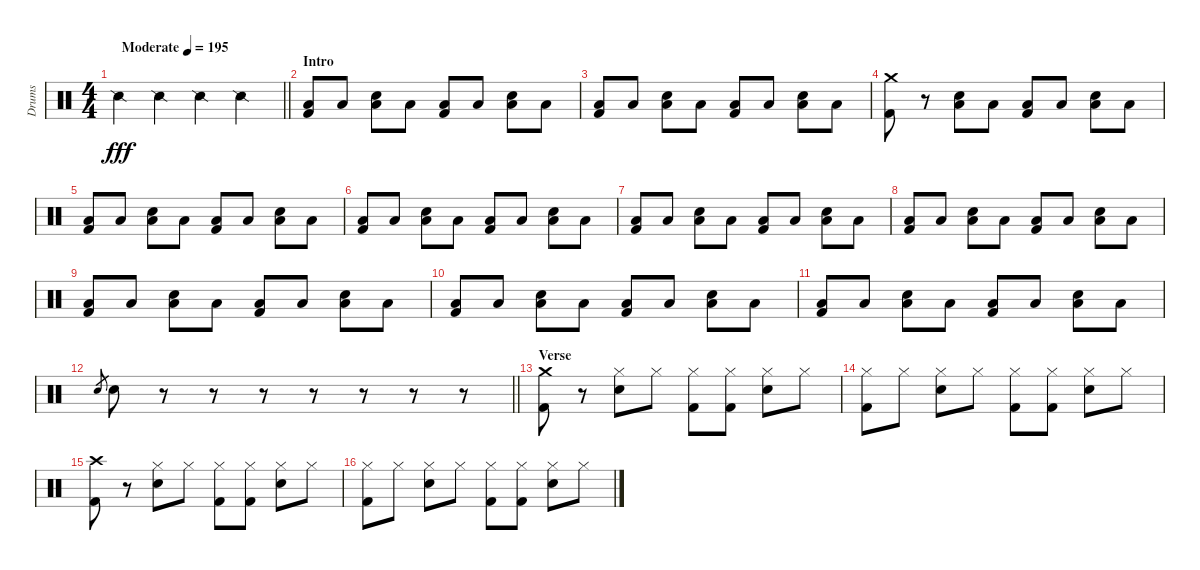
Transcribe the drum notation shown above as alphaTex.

\track ("Drums" "Drums") {instrument percussion}
\staff {score}
\articulation defaults
\ts (4 4)
\tempo (195 "Moderate")
\clef neutral
\barLineRight lightlight
\ks c "Snare (side stick) 2".4{dy fff} "Snare (side stick) 2".4 "Snare (side stick) 2".4 "Snare (side stick) 2".4
|
\section ("" "Intro")
("Low Floor Tom (hit)" "Kick (hit) 2").8 "Low Floor Tom (hit)".8 ("Low Floor Tom (hit)" "Snare (hit) 2").8 "Low Floor Tom (hit)".8 ("Low Floor Tom (hit)" "Kick (hit) 2").8 "Low Floor Tom (hit)".8 ("Low Floor Tom (hit)" "Snare (hit) 2").8 "Low Floor Tom (hit)".8 |
("Low Floor Tom (hit)" "Kick (hit) 2").8 "Low Floor Tom (hit)".8 ("Low Floor Tom (hit)" "Snare (hit) 2").8 "Low Floor Tom (hit)".8 ("Low Floor Tom (hit)" "Kick (hit) 2").8 "Low Floor Tom (hit)".8 ("Low Floor Tom (hit)" "Snare (hit) 2").8 "Low Floor Tom (hit)".8 |
("Crash medium (hit)" "Kick (hit) 2").8 r.8 ("Low Floor Tom (hit)" "Snare (hit) 2").8 "Low Floor Tom (hit)".8 ("Low Floor Tom (hit)" "Kick (hit) 2").8 "Low Floor Tom (hit)".8 ("Low Floor Tom (hit)" "Snare (hit) 2").8 "Low Floor Tom (hit)".8 |
("Low Floor Tom (hit)" "Kick (hit) 2").8 "Low Floor Tom (hit)".8 ("Low Floor Tom (hit)" "Snare (hit) 2").8 "Low Floor Tom (hit)".8 ("Low Floor Tom (hit)" "Kick (hit) 2").8 "Low Floor Tom (hit)".8 ("Low Floor Tom (hit)" "Snare (hit) 2").8 "Low Floor Tom (hit)".8 |
("Low Floor Tom (hit)" "Kick (hit) 2").8 "Low Floor Tom (hit)".8 ("Low Floor Tom (hit)" "Snare (hit) 2").8 "Low Floor Tom (hit)".8 ("Low Floor Tom (hit)" "Kick (hit) 2").8 "Low Floor Tom (hit)".8 ("Low Floor Tom (hit)" "Snare (hit) 2").8 "Low Floor Tom (hit)".8 |
("Low Floor Tom (hit)" "Kick (hit) 2").8 "Low Floor Tom (hit)".8 ("Low Floor Tom (hit)" "Snare (hit) 2").8 "Low Floor Tom (hit)".8 ("Low Floor Tom (hit)" "Kick (hit) 2").8 "Low Floor Tom (hit)".8 ("Low Floor Tom (hit)" "Snare (hit) 2").8 "Low Floor Tom (hit)".8 |
("Low Floor Tom (hit)" "Kick (hit) 2").8 "Low Floor Tom (hit)".8 ("Low Floor Tom (hit)" "Snare (hit) 2").8 "Low Floor Tom (hit)".8 ("Low Floor Tom (hit)" "Kick (hit) 2").8 "Low Floor Tom (hit)".8 ("Low Floor Tom (hit)" "Snare (hit) 2").8 "Low Floor Tom (hit)".8 |
("Low Floor Tom (hit)" "Kick (hit) 2").8 "Low Floor Tom (hit)".8 ("Low Floor Tom (hit)" "Snare (hit) 2").8 "Low Floor Tom (hit)".8 ("Low Floor Tom (hit)" "Kick (hit) 2").8 "Low Floor Tom (hit)".8 ("Low Floor Tom (hit)" "Snare (hit) 2").8 "Low Floor Tom (hit)".8 |
("Low Floor Tom (hit)" "Kick (hit) 2").8 "Low Floor Tom (hit)".8 ("Low Floor Tom (hit)" "Snare (hit) 2").8 "Low Floor Tom (hit)".8 ("Low Floor Tom (hit)" "Kick (hit) 2").8 "Low Floor Tom (hit)".8 ("Low Floor Tom (hit)" "Snare (hit) 2").8 "Low Floor Tom (hit)".8 |
("Low Floor Tom (hit)" "Kick (hit) 2").8 "Low Floor Tom (hit)".8 ("Low Floor Tom (hit)" "Snare (hit) 2").8 "Low Floor Tom (hit)".8 ("Low Floor Tom (hit)" "Kick (hit) 2").8 "Low Floor Tom (hit)".8 ("Low Floor Tom (hit)" "Snare (hit) 2").8 "Low Floor Tom (hit)".8 |
\barLineRight lightlight "Snare (hit) 2".8{gr} "Snare (hit) 2".8
r.8 r.8 r.8 r.8 r.8 r.8 r.8 |
\section ("" "Verse")
("Crash medium (hit)" "Kick (hit) 2").8 r.8 ("Hi-Hat (closed)" "Snare (hit) 2").8 "Hi-Hat (closed)".8 ("Hi-Hat (closed)" "Kick (hit) 2").8 ("Hi-Hat (closed)" "Kick (hit) 2").8 ("Hi-Hat (closed)" "Snare (hit) 2").8 "Hi-Hat (closed)".8 |
("Hi-Hat (closed)" "Kick (hit) 2").8 "Hi-Hat (closed)".8 ("Hi-Hat (closed)" "Snare (hit) 2").8 "Hi-Hat (closed)".8 ("Hi-Hat (closed)" "Kick (hit) 2").8 ("Hi-Hat (closed)" "Kick (hit) 2").8 ("Hi-Hat (closed)" "Snare (hit) 2").8 "Hi-Hat (closed)".8 |
("Crash high (hit)" "Kick (hit) 2").8 r.8 ("Hi-Hat (closed)" "Snare (hit) 2").8 "Hi-Hat (closed)".8 ("Hi-Hat (closed)" "Kick (hit) 2").8 ("Hi-Hat (closed)" "Kick (hit) 2").8 ("Hi-Hat (closed)" "Snare (hit) 2").8 "Hi-Hat (closed)".8 |
("Hi-Hat (closed)" "Kick (hit) 2").8 "Hi-Hat (closed)".8 ("Hi-Hat (closed)" "Snare (hit) 2").8 "Hi-Hat (closed)".8 ("Hi-Hat (closed)" "Kick (hit) 2").8 ("Hi-Hat (closed)" "Kick (hit) 2").8 ("Hi-Hat (closed)" "Snare (hit) 2").8 "Hi-Hat (closed)".8
